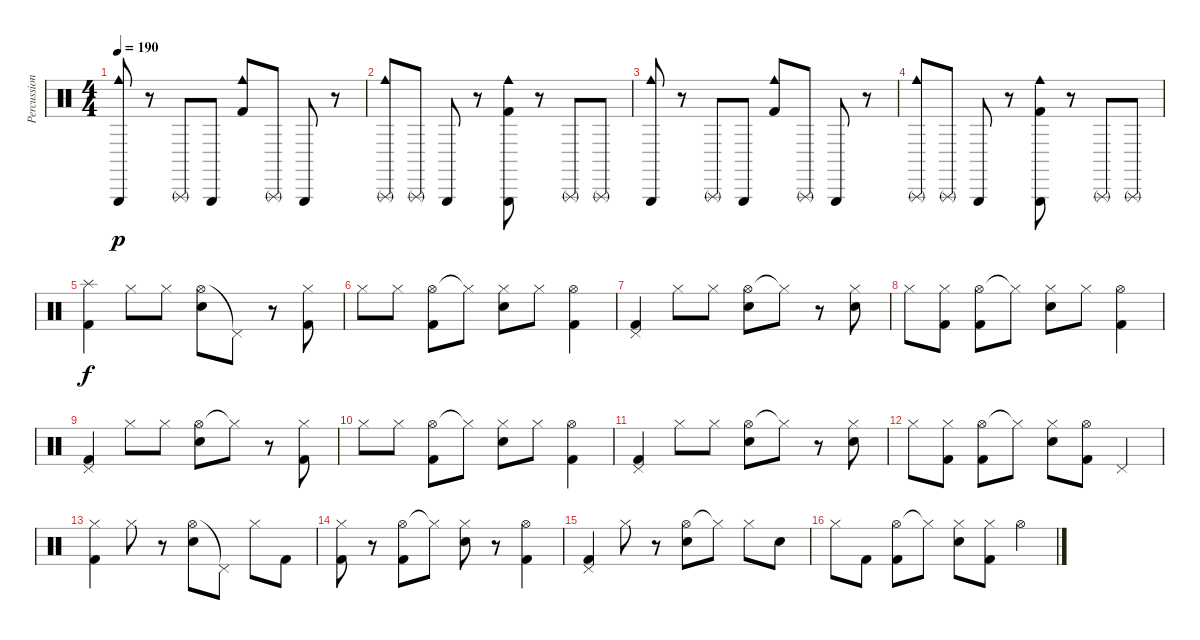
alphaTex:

\track ("Percussion" "Percussion") {instrument percussion}
\staff {score}
\articulation defaults
\ts (4 4)
\tempo 190
\clef neutral
\ks c
("Cowbell medium (hit)" "Triangle (hit)").8{dy p} r.8 "Triangle (rnute)".8 "Triangle (hit)".8 ("Cowbell medium (hit)" "Kick (hit) 2").8 "Triangle (rnute)".8 "Triangle (hit)".8 r.8 |
("Cowbell medium (hit)" "Triangle (rnute)").8 "Triangle (rnute)".8 "Triangle (hit)".8 r.8 ("Cowbell medium (hit)" "Triangle (hit)" "Kick (hit) 2").8 r.8 "Triangle (rnute)".8 "Triangle (rnute)".8 |
("Cowbell medium (hit)" "Triangle (hit)").8 r.8 "Triangle (rnute)".8 "Triangle (hit)".8 ("Cowbell medium (hit)" "Kick (hit) 2").8 "Triangle (rnute)".8 "Triangle (hit)".8 r.8 |
("Cowbell medium (hit)" "Triangle (rnute)").8 "Triangle (rnute)".8 "Triangle (hit)".8 r.8 ("Cowbell medium (hit)" "Triangle (hit)" "Kick (hit) 2").8 r.8 "Triangle (rnute)".8 "Triangle (rnute)".8 |
("Splash (hit)" "Kick (hit) 2").4{dy f} "Hi-Hat (closed)".8 "Hi-Hat (closed)".8 ("Hi-Hat (open)" "Electric Snare (hit)").8 "Pedal Hi-Hat (hit)"{t}.8 r.8 ("Hi-Hat (closed)" "Kick (hit) 2").8 |
"Hi-Hat (closed)".8 "Hi-Hat (closed)".8 ("Hi-Hat (open)" "Kick (hit) 2").8 "Hi-Hat (closed)"{t}.8 ("Hi-Hat (closed)" "Electric Snare (hit)").8 "Hi-Hat (closed)".8 ("Hi-Hat (open)" "Kick (hit) 2").4 |
("Pedal Hi-Hat (hit)" "Kick (hit) 2").4 "Hi-Hat (closed)".8 "Hi-Hat (closed)".8 ("Hi-Hat (open)" "Electric Snare (hit)").8 "Hi-Hat (closed)"{t}.8 r.8 ("Hi-Hat (closed)" "Electric Snare (hit)").8 |
"Hi-Hat (closed)".8 ("Hi-Hat (closed)" "Kick (hit) 2").8 ("Hi-Hat (open)" "Kick (hit) 2").8 "Hi-Hat (closed)"{t}.8 ("Hi-Hat (closed)" "Electric Snare (hit)").8 "Hi-Hat (closed)".8 ("Hi-Hat (open)" "Kick (hit) 2").4 |
("Pedal Hi-Hat (hit)" "Kick (hit) 2").4 "Hi-Hat (closed)".8 "Hi-Hat (closed)".8 ("Hi-Hat (open)" "Electric Snare (hit)").8 "Hi-Hat (closed)"{t}.8 r.8 ("Hi-Hat (closed)" "Kick (hit) 2").8 |
"Hi-Hat (closed)".8 "Hi-Hat (closed)".8 ("Hi-Hat (open)" "Kick (hit) 2").8 "Hi-Hat (closed)"{t}.8 ("Hi-Hat (closed)" "Electric Snare (hit)").8 "Hi-Hat (closed)".8 ("Hi-Hat (open)" "Kick (hit) 2").4 |
("Pedal Hi-Hat (hit)" "Kick (hit) 2").4 "Hi-Hat (closed)".8 "Hi-Hat (closed)".8 ("Hi-Hat (open)" "Electric Snare (hit)").8 "Hi-Hat (closed)"{t}.8 r.8 ("Hi-Hat (closed)" "Electric Snare (hit)").8 |
"Hi-Hat (closed)".8 ("Hi-Hat (closed)" "Kick (hit) 2").8 ("Hi-Hat (open)" "Kick (hit) 2").8 "Hi-Hat (closed)"{t}.8 ("Hi-Hat (closed)" "Electric Snare (hit)").8 ("Hi-Hat (open)" "Kick (hit) 2").8 "Pedal Hi-Hat (hit)".4 |
("Hi-Hat (closed)" "Kick (hit) 2").4 "Hi-Hat (closed)".8 r.8 ("Hi-Hat (open)" "Electric Snare (hit)").8 "Pedal Hi-Hat (hit)"{t}.8 "Hi-Hat (closed)".8 "Kick (hit) 2".8 |
("Hi-Hat (closed)" "Kick (hit) 2").8 r.8 ("Hi-Hat (open)" "Kick (hit) 2").8 "Hi-Hat (closed)"{t}.8 ("Hi-Hat (closed)" "Electric Snare (hit)").8 r.8 ("Hi-Hat (open)" "Kick (hit) 2").4 |
("Pedal Hi-Hat (hit)" "Kick (hit) 2").4 "Hi-Hat (closed)".8 r.8 ("Hi-Hat (open)" "Electric Snare (hit)").8 "Hi-Hat (closed)"{t}.8 "Hi-Hat (closed)".8 "Electric Snare (hit)".8 |
"Hi-Hat (closed)".8 "Kick (hit) 2".8 ("Hi-Hat (open)" "Kick (hit) 2").8 "Hi-Hat (closed)"{t}.8 ("Hi-Hat (closed)" "Electric Snare (hit)").8 ("Hi-Hat (closed)" "Kick (hit) 2").8 "Hi-Hat (open)".4
